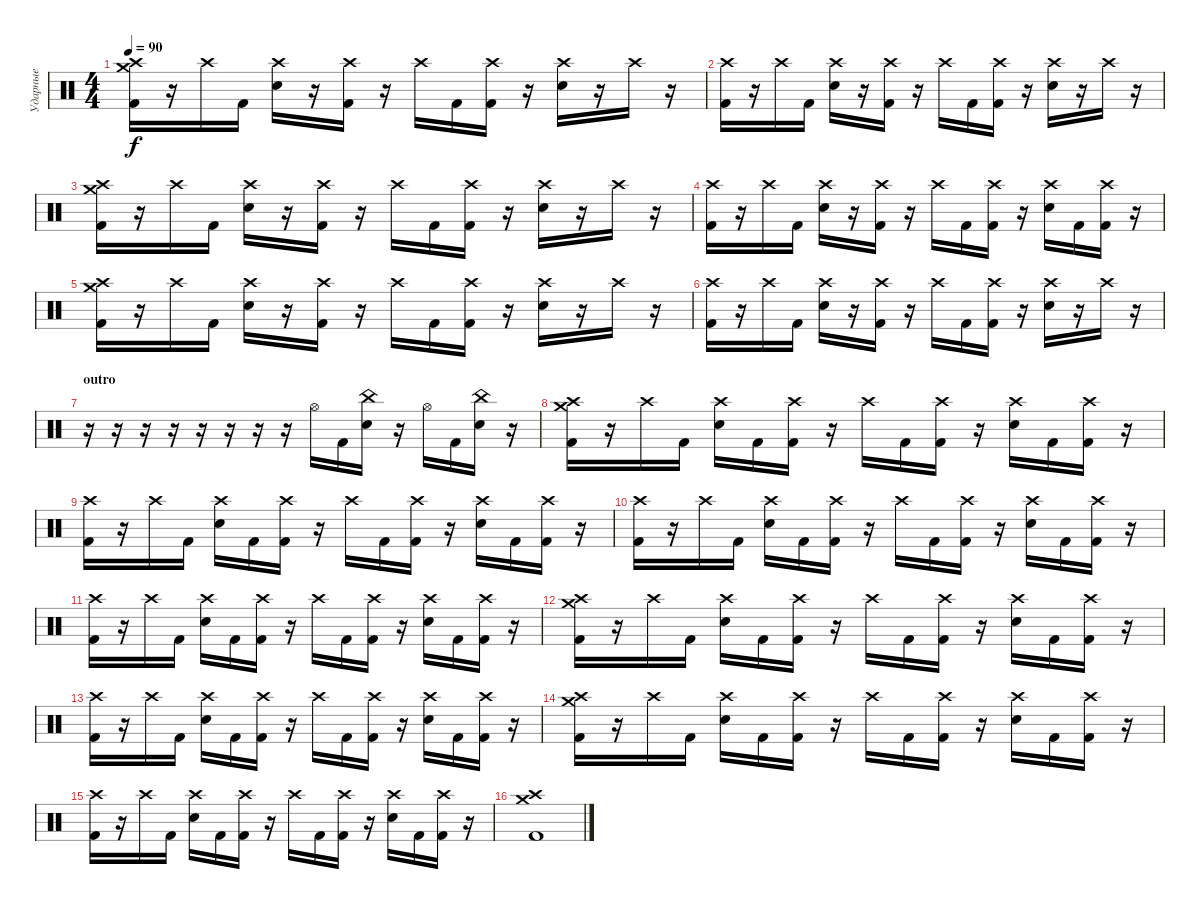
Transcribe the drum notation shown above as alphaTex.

\track ("Ударные" "Ударные") {instrument percussion}
\staff {score}
\articulation defaults
\ts (4 4)
\tempo 90
\clef neutral
\ks c
("Crash high (hit)" "Crash medium (hit)" "Kick (hit) 2").16{dy f} r.16 "Crash high (hit)".16 "Kick (hit) 2".16 ("Crash high (hit)" "Electric Snare (hit)").16 r.16 ("Crash high (hit)" "Kick (hit) 2").16 r.16 "Crash high (hit)".16 "Kick (hit) 2".16 ("Crash high (hit)" "Kick (hit) 2").16 r.16 ("Crash high (hit)" "Electric Snare (hit)").16 r.16 "Crash high (hit)".16 r.16 |
("Crash high (hit)" "Kick (hit) 2").16 r.16 "Crash high (hit)".16 "Kick (hit) 2".16 ("Crash high (hit)" "Electric Snare (hit)").16 r.16 ("Crash high (hit)" "Kick (hit) 2").16 r.16 "Crash high (hit)".16 "Kick (hit) 2".16 ("Crash high (hit)" "Kick (hit) 2").16 r.16 ("Crash high (hit)" "Electric Snare (hit)").16 r.16 "Crash high (hit)".16 r.16 |
("Crash high (hit)" "Crash medium (hit)" "Kick (hit) 2").16 r.16 "Crash high (hit)".16 "Kick (hit) 2".16 ("Crash high (hit)" "Electric Snare (hit)").16 r.16 ("Crash high (hit)" "Kick (hit) 2").16 r.16 "Crash high (hit)".16 "Kick (hit) 2".16 ("Crash high (hit)" "Kick (hit) 2").16 r.16 ("Crash high (hit)" "Electric Snare (hit)").16 r.16 "Crash high (hit)".16 r.16 |
("Crash high (hit)" "Kick (hit) 2").16 r.16 "Crash high (hit)".16 "Kick (hit) 2".16 ("Crash high (hit)" "Electric Snare (hit)").16 r.16 ("Crash high (hit)" "Kick (hit) 2").16 r.16 "Crash high (hit)".16 "Kick (hit) 2".16 ("Crash high (hit)" "Kick (hit) 2").16 r.16 ("Crash high (hit)" "Electric Snare (hit)").16 "Kick (hit) 2".16 ("Crash high (hit)" "Kick (hit) 2").16 r.16 |
("Crash high (hit)" "Crash medium (hit)" "Kick (hit) 2").16 r.16 "Crash high (hit)".16 "Kick (hit) 2".16 ("Crash high (hit)" "Electric Snare (hit)").16 r.16 ("Crash high (hit)" "Kick (hit) 2").16 r.16 "Crash high (hit)".16 "Kick (hit) 2".16 ("Crash high (hit)" "Kick (hit) 2").16 r.16 ("Crash high (hit)" "Electric Snare (hit)").16 r.16 "Crash high (hit)".16 r.16 |
("Crash high (hit)" "Kick (hit) 2").16 r.16 "Crash high (hit)".16 "Kick (hit) 2".16 ("Crash high (hit)" "Electric Snare (hit)").16 r.16 ("Crash high (hit)" "Kick (hit) 2").16 r.16 "Crash high (hit)".16 "Kick (hit) 2".16 ("Crash high (hit)" "Kick (hit) 2").16 r.16 ("Crash high (hit)" "Electric Snare (hit)").16 r.16 "Crash high (hit)".16 r.16 |
\section ("" "outro")
r.16 r.16 r.16 r.16 r.16 r.16 r.16 r.16 "Hi-Hat (open)".16 "Kick (hit) 2".16 ("China (hit)" "Electric Snare (hit)").16 r.16 "Hi-Hat (open)".16 "Kick (hit) 2".16 ("China (hit)" "Electric Snare (hit)").16 r.16 |
("Crash high (hit)" "Crash medium (hit)" "Kick (hit) 2").16 r.16 "Crash high (hit)".16 "Kick (hit) 2".16 ("Crash high (hit)" "Electric Snare (hit)").16 "Kick (hit) 2".16 ("Crash high (hit)" "Kick (hit) 2").16 r.16 "Crash high (hit)".16 "Kick (hit) 2".16 ("Crash high (hit)" "Kick (hit) 2").16 r.16 ("Crash high (hit)" "Electric Snare (hit)").16 "Kick (hit) 2".16 ("Crash high (hit)" "Kick (hit) 2").16 r.16 |
("Crash high (hit)" "Kick (hit) 2").16 r.16 "Crash high (hit)".16 "Kick (hit) 2".16 ("Crash high (hit)" "Electric Snare (hit)").16 "Kick (hit) 2".16 ("Crash high (hit)" "Kick (hit) 2").16 r.16 "Crash high (hit)".16 "Kick (hit) 2".16 ("Crash high (hit)" "Kick (hit) 2").16 r.16 ("Crash high (hit)" "Electric Snare (hit)").16 "Kick (hit) 2".16 ("Crash high (hit)" "Kick (hit) 2").16 r.16 |
("Crash high (hit)" "Kick (hit) 2").16 r.16 "Crash high (hit)".16 "Kick (hit) 2".16 ("Crash high (hit)" "Electric Snare (hit)").16 "Kick (hit) 2".16 ("Crash high (hit)" "Kick (hit) 2").16 r.16 "Crash high (hit)".16 "Kick (hit) 2".16 ("Crash high (hit)" "Kick (hit) 2").16 r.16 ("Crash high (hit)" "Electric Snare (hit)").16 "Kick (hit) 2".16 ("Crash high (hit)" "Kick (hit) 2").16 r.16 |
("Crash high (hit)" "Kick (hit) 2").16 r.16 "Crash high (hit)".16 "Kick (hit) 2".16 ("Crash high (hit)" "Electric Snare (hit)").16 "Kick (hit) 2".16 ("Crash high (hit)" "Kick (hit) 2").16 r.16 "Crash high (hit)".16 "Kick (hit) 2".16 ("Crash high (hit)" "Kick (hit) 2").16 r.16 ("Crash high (hit)" "Electric Snare (hit)").16 "Kick (hit) 2".16 ("Crash high (hit)" "Kick (hit) 2").16 r.16 |
("Crash high (hit)" "Crash medium (hit)" "Kick (hit) 2").16 r.16 "Crash high (hit)".16 "Kick (hit) 2".16 ("Crash high (hit)" "Electric Snare (hit)").16 "Kick (hit) 2".16 ("Crash high (hit)" "Kick (hit) 2").16 r.16 "Crash high (hit)".16 "Kick (hit) 2".16 ("Crash high (hit)" "Kick (hit) 2").16 r.16 ("Crash high (hit)" "Electric Snare (hit)").16 "Kick (hit) 2".16 ("Crash high (hit)" "Kick (hit) 2").16 r.16 |
("Crash high (hit)" "Kick (hit) 2").16 r.16 "Crash high (hit)".16 "Kick (hit) 2".16 ("Crash high (hit)" "Electric Snare (hit)").16 "Kick (hit) 2".16 ("Crash high (hit)" "Kick (hit) 2").16 r.16 "Crash high (hit)".16 "Kick (hit) 2".16 ("Crash high (hit)" "Kick (hit) 2").16 r.16 ("Crash high (hit)" "Electric Snare (hit)").16 "Kick (hit) 2".16 ("Crash high (hit)" "Kick (hit) 2").16 r.16 |
("Crash high (hit)" "Crash medium (hit)" "Kick (hit) 2").16 r.16 "Crash high (hit)".16 "Kick (hit) 2".16 ("Crash high (hit)" "Electric Snare (hit)").16 "Kick (hit) 2".16 ("Crash high (hit)" "Kick (hit) 2").16 r.16 "Crash high (hit)".16 "Kick (hit) 2".16 ("Crash high (hit)" "Kick (hit) 2").16 r.16 ("Crash high (hit)" "Electric Snare (hit)").16 "Kick (hit) 2".16 ("Crash high (hit)" "Kick (hit) 2").16 r.16 |
("Crash high (hit)" "Kick (hit) 2").16 r.16 "Crash high (hit)".16 "Kick (hit) 2".16 ("Crash high (hit)" "Electric Snare (hit)").16 "Kick (hit) 2".16 ("Crash high (hit)" "Kick (hit) 2").16 r.16 "Crash high (hit)".16 "Kick (hit) 2".16 ("Crash high (hit)" "Kick (hit) 2").16 r.16 ("Crash high (hit)" "Electric Snare (hit)").16 "Kick (hit) 2".16 ("Crash high (hit)" "Kick (hit) 2").16 r.16 |
("Crash high (hit)" "Crash medium (hit)" "Kick (hit) 2").1
